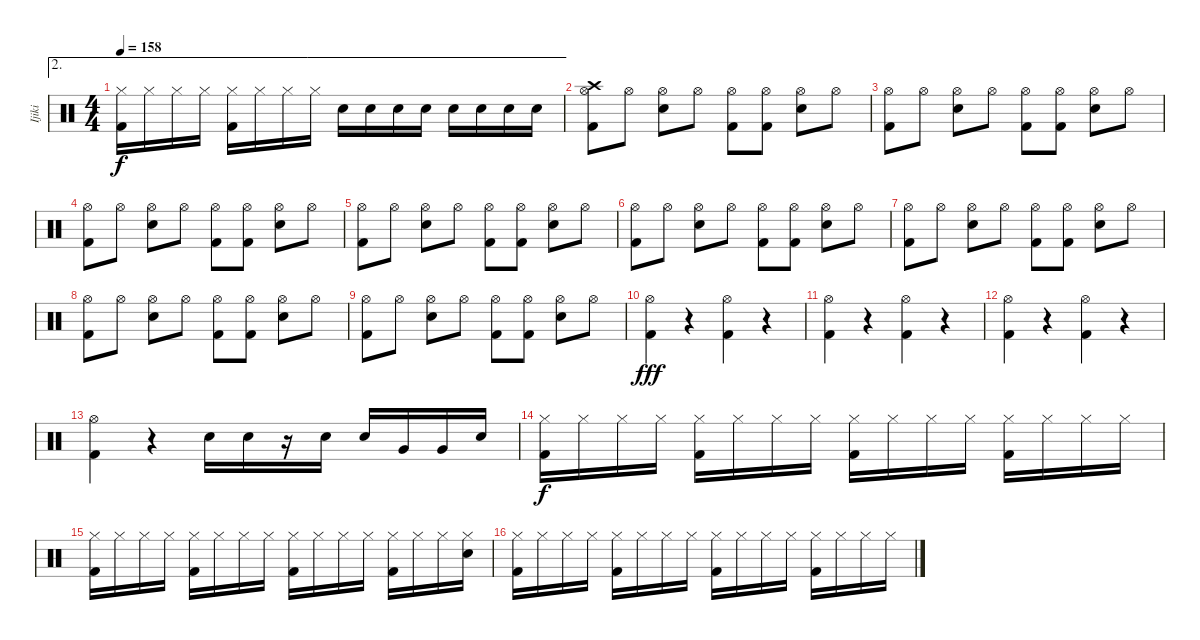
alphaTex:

\track ("Ijiki" "Ijiki") {instrument percussion}
\staff {score}
\articulation defaults
\ae 2
\ts (4 4)
\tempo 158
\clef neutral
\ks c
("Hi-Hat (closed)" "Kick (hit) 2").16{dy f} "Hi-Hat (closed)".16 "Hi-Hat (closed)".16 "Hi-Hat (closed)".16 ("Hi-Hat (closed)" "Kick (hit) 2").16 "Hi-Hat (closed)".16 "Hi-Hat (closed)".16 "Hi-Hat (closed)".16 "Snare (hit) 2".16 "Snare (hit) 2".16 "Snare (hit) 2".16 "Snare (hit) 2".16 "Snare (hit) 2".16 "Snare (hit) 2".16 "Snare (hit) 2".16 "Snare (hit) 2".16 |
("Hi-Hat (open)" "Kick (hit) 2" "Crash high (hit)").8 "Hi-Hat (open)".8 ("Hi-Hat (open)" "Snare (hit) 2").8 "Hi-Hat (open)".8 ("Hi-Hat (open)" "Kick (hit) 2").8 ("Hi-Hat (open)" "Kick (hit) 2").8 ("Hi-Hat (open)" "Snare (hit) 2").8 "Hi-Hat (open)".8 |
("Hi-Hat (open)" "Kick (hit) 2").8 "Hi-Hat (open)".8 ("Hi-Hat (open)" "Snare (hit) 2").8 "Hi-Hat (open)".8 ("Hi-Hat (open)" "Kick (hit) 2").8 ("Hi-Hat (open)" "Kick (hit) 2").8 ("Hi-Hat (open)" "Snare (hit) 2").8 "Hi-Hat (open)".8 |
("Hi-Hat (open)" "Kick (hit) 2").8 "Hi-Hat (open)".8 ("Hi-Hat (open)" "Snare (hit) 2").8 "Hi-Hat (open)".8 ("Hi-Hat (open)" "Kick (hit) 2").8 ("Hi-Hat (open)" "Kick (hit) 2").8 ("Hi-Hat (open)" "Snare (hit) 2").8 "Hi-Hat (open)".8 |
("Hi-Hat (open)" "Kick (hit) 2").8 "Hi-Hat (open)".8 ("Hi-Hat (open)" "Snare (hit) 2").8 "Hi-Hat (open)".8 ("Hi-Hat (open)" "Kick (hit) 2").8 ("Hi-Hat (open)" "Kick (hit) 2").8 ("Hi-Hat (open)" "Snare (hit) 2").8 "Hi-Hat (open)".8 |
("Hi-Hat (open)" "Kick (hit) 2").8 "Hi-Hat (open)".8 ("Hi-Hat (open)" "Snare (hit) 2").8 "Hi-Hat (open)".8 ("Hi-Hat (open)" "Kick (hit) 2").8 ("Hi-Hat (open)" "Kick (hit) 2").8 ("Hi-Hat (open)" "Snare (hit) 2").8 "Hi-Hat (open)".8 |
("Hi-Hat (open)" "Kick (hit) 2").8 "Hi-Hat (open)".8 ("Hi-Hat (open)" "Snare (hit) 2").8 "Hi-Hat (open)".8 ("Hi-Hat (open)" "Kick (hit) 2").8 ("Hi-Hat (open)" "Kick (hit) 2").8 ("Hi-Hat (open)" "Snare (hit) 2").8 "Hi-Hat (open)".8 |
("Hi-Hat (open)" "Kick (hit) 2").8 "Hi-Hat (open)".8 ("Hi-Hat (open)" "Snare (hit) 2").8 "Hi-Hat (open)".8 ("Hi-Hat (open)" "Kick (hit) 2").8 ("Hi-Hat (open)" "Kick (hit) 2").8 ("Hi-Hat (open)" "Snare (hit) 2").8 "Hi-Hat (open)".8 |
("Hi-Hat (open)" "Kick (hit) 2").8 "Hi-Hat (open)".8 ("Hi-Hat (open)" "Snare (hit) 2").8 "Hi-Hat (open)".8 ("Hi-Hat (open)" "Kick (hit) 2").8 ("Hi-Hat (open)" "Kick (hit) 2").8 ("Hi-Hat (open)" "Snare (hit) 2").8 "Hi-Hat (open)".8 |
("Hi-Hat (open)" "Kick (hit) 2").4{dy fff} r.4 ("Hi-Hat (open)" "Kick (hit) 2").4 r.4 |
("Hi-Hat (open)" "Kick (hit) 2").4 r.4 ("Hi-Hat (open)" "Kick (hit) 2").4 r.4 |
("Hi-Hat (open)" "Kick (hit) 2").4 r.4 ("Hi-Hat (open)" "Kick (hit) 2").4 r.4 |
("Hi-Hat (open)" "Kick (hit) 2").4 r.4 "Snare (hit) 2".16 "Snare (hit) 2".16 r.16 "Snare (hit) 2".16 "Snare (hit) 2".16 "Very Low Tom (hit)".16 "Very Low Tom (hit)".16 "Electric Snare (hit)".16 |
("Hi-Hat (closed)" "Kick (hit) 2").16{dy f} "Hi-Hat (closed)".16 "Hi-Hat (closed)".16 "Hi-Hat (closed)".16 ("Hi-Hat (closed)" "Kick (hit) 2").16 "Hi-Hat (closed)".16 "Hi-Hat (closed)".16 "Hi-Hat (closed)".16 ("Hi-Hat (closed)" "Kick (hit) 2").16 "Hi-Hat (closed)".16 "Hi-Hat (closed)".16 "Hi-Hat (closed)".16 ("Hi-Hat (closed)" "Kick (hit) 2").16 "Hi-Hat (closed)".16 "Hi-Hat (closed)".16 "Hi-Hat (closed)".16 |
("Hi-Hat (closed)" "Kick (hit) 2").16 "Hi-Hat (closed)".16 "Hi-Hat (closed)".16 "Hi-Hat (closed)".16 ("Hi-Hat (closed)" "Kick (hit) 2").16 "Hi-Hat (closed)".16 "Hi-Hat (closed)".16 "Hi-Hat (closed)".16 ("Hi-Hat (closed)" "Kick (hit) 2").16 "Hi-Hat (closed)".16 "Hi-Hat (closed)".16 "Hi-Hat (closed)".16 ("Hi-Hat (closed)" "Kick (hit) 2").16 "Hi-Hat (closed)".16 "Hi-Hat (closed)".16 ("Hi-Hat (closed)" "Snare (hit) 2").16 |
("Hi-Hat (closed)" "Kick (hit) 2").16 "Hi-Hat (closed)".16 "Hi-Hat (closed)".16 "Hi-Hat (closed)".16 ("Hi-Hat (closed)" "Kick (hit) 2").16 "Hi-Hat (closed)".16 "Hi-Hat (closed)".16 "Hi-Hat (closed)".16 ("Hi-Hat (closed)" "Kick (hit) 2").16 "Hi-Hat (closed)".16 "Hi-Hat (closed)".16 "Hi-Hat (closed)".16 ("Hi-Hat (closed)" "Kick (hit) 2").16 "Hi-Hat (closed)".16 "Hi-Hat (closed)".16 "Hi-Hat (closed)".16
